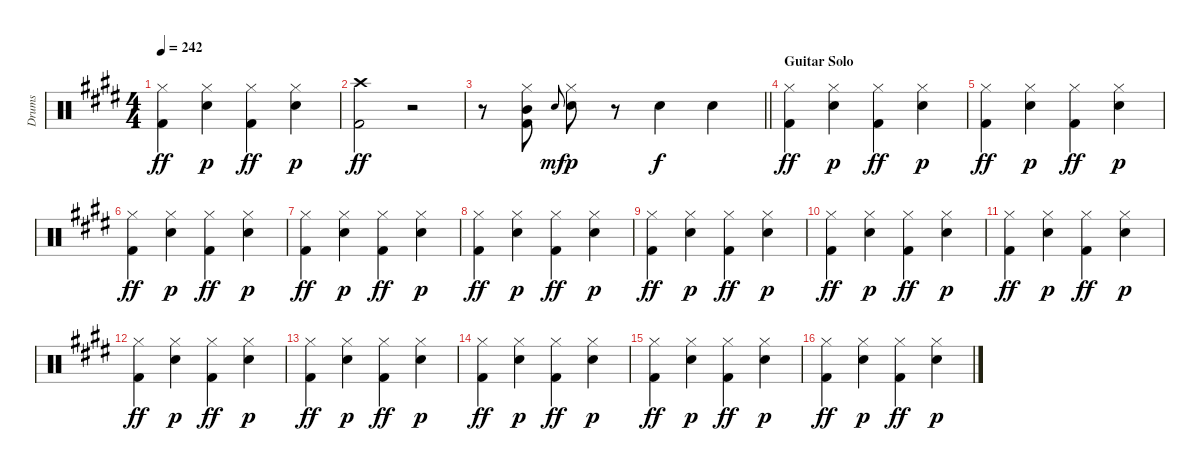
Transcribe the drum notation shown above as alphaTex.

\track ("Drums" "Drums") {instrument percussion}
\staff {score}
\articulation defaults
\ts (4 4)
\tempo 242
\clef neutral
\ks e
("Hi-Hat (closed)" "Kick (hit) 2").4{dy ff} ("Hi-Hat (closed)" "Electric Snare (hit)").4{dy p} ("Hi-Hat (closed)" "Kick (hit) 2").4{dy ff} ("Hi-Hat (closed)" "Electric Snare (hit)").4{dy p} |
("Crash high (hit)" "Kick (hit) 2").2{dy ff} r.2 |
\barLineRight lightlight
r.8 ("Hi-Hat (closed)" "Mid Tom (hit)" "Kick (hit) 2").8 "Electric Snare (hit)".8{gr onbeat dy mf} ("Hi-Hat (closed)" "Electric Snare (hit)").8{dy p} r.8 "Electric Snare (hit)".4{dy f} "Electric Snare (hit)".4 |
\section ("" "Guitar Solo")
("Hi-Hat (closed)" "Kick (hit) 2").4{dy ff} ("Hi-Hat (closed)" "Electric Snare (hit)").4{dy p} ("Hi-Hat (closed)" "Kick (hit) 2").4{dy ff} ("Hi-Hat (closed)" "Electric Snare (hit)").4{dy p} |
("Hi-Hat (closed)" "Kick (hit) 2").4{dy ff} ("Hi-Hat (closed)" "Electric Snare (hit)").4{dy p} ("Hi-Hat (closed)" "Kick (hit) 2").4{dy ff} ("Hi-Hat (closed)" "Electric Snare (hit)").4{dy p} |
("Hi-Hat (closed)" "Kick (hit) 2").4{dy ff} ("Hi-Hat (closed)" "Electric Snare (hit)").4{dy p} ("Hi-Hat (closed)" "Kick (hit) 2").4{dy ff} ("Hi-Hat (closed)" "Electric Snare (hit)").4{dy p} |
("Hi-Hat (closed)" "Kick (hit) 2").4{dy ff} ("Hi-Hat (closed)" "Electric Snare (hit)").4{dy p} ("Hi-Hat (closed)" "Kick (hit) 2").4{dy ff} ("Hi-Hat (closed)" "Electric Snare (hit)").4{dy p} |
("Hi-Hat (closed)" "Kick (hit) 2").4{dy ff} ("Hi-Hat (closed)" "Electric Snare (hit)").4{dy p} ("Hi-Hat (closed)" "Kick (hit) 2").4{dy ff} ("Hi-Hat (closed)" "Electric Snare (hit)").4{dy p} |
("Hi-Hat (closed)" "Kick (hit) 2").4{dy ff} ("Hi-Hat (closed)" "Electric Snare (hit)").4{dy p} ("Hi-Hat (closed)" "Kick (hit) 2").4{dy ff} ("Hi-Hat (closed)" "Electric Snare (hit)").4{dy p} |
("Hi-Hat (closed)" "Kick (hit) 2").4{dy ff} ("Hi-Hat (closed)" "Electric Snare (hit)").4{dy p} ("Hi-Hat (closed)" "Kick (hit) 2").4{dy ff} ("Hi-Hat (closed)" "Electric Snare (hit)").4{dy p} |
("Hi-Hat (closed)" "Kick (hit) 2").4{dy ff} ("Hi-Hat (closed)" "Electric Snare (hit)").4{dy p} ("Hi-Hat (closed)" "Kick (hit) 2").4{dy ff} ("Hi-Hat (closed)" "Electric Snare (hit)").4{dy p} |
("Hi-Hat (closed)" "Kick (hit) 2").4{dy ff} ("Hi-Hat (closed)" "Electric Snare (hit)").4{dy p} ("Hi-Hat (closed)" "Kick (hit) 2").4{dy ff} ("Hi-Hat (closed)" "Electric Snare (hit)").4{dy p} |
("Hi-Hat (closed)" "Kick (hit) 2").4{dy ff} ("Hi-Hat (closed)" "Electric Snare (hit)").4{dy p} ("Hi-Hat (closed)" "Kick (hit) 2").4{dy ff} ("Hi-Hat (closed)" "Electric Snare (hit)").4{dy p} |
("Hi-Hat (closed)" "Kick (hit) 2").4{dy ff} ("Hi-Hat (closed)" "Electric Snare (hit)").4{dy p} ("Hi-Hat (closed)" "Kick (hit) 2").4{dy ff} ("Hi-Hat (closed)" "Electric Snare (hit)").4{dy p} |
("Hi-Hat (closed)" "Kick (hit) 2").4{dy ff} ("Hi-Hat (closed)" "Electric Snare (hit)").4{dy p} ("Hi-Hat (closed)" "Kick (hit) 2").4{dy ff} ("Hi-Hat (closed)" "Electric Snare (hit)").4{dy p} |
("Hi-Hat (closed)" "Kick (hit) 2").4{dy ff} ("Hi-Hat (closed)" "Electric Snare (hit)").4{dy p} ("Hi-Hat (closed)" "Kick (hit) 2").4{dy ff} ("Hi-Hat (closed)" "Electric Snare (hit)").4{dy p}
